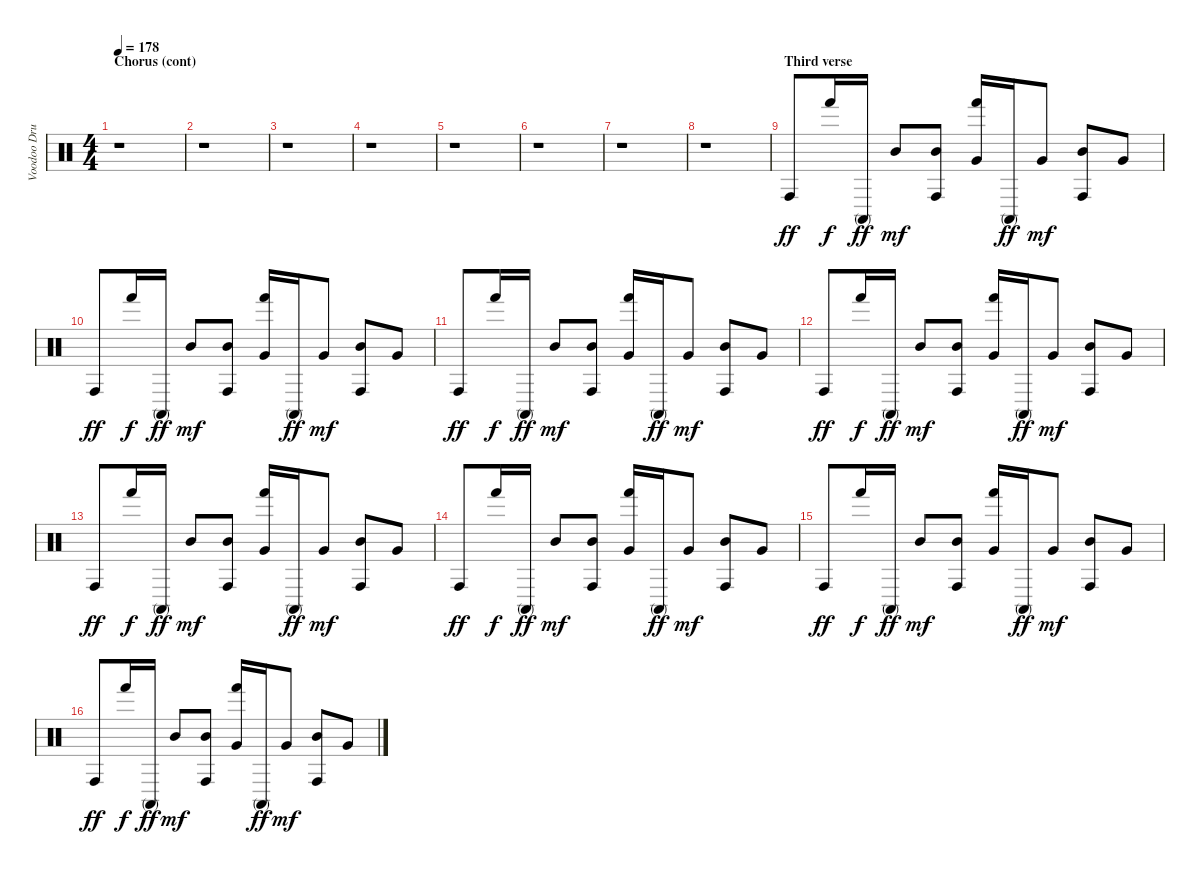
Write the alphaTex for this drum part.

\track ("Voodoo Drums" "Voodoo Dru") {instrument percussion}
\staff {score}
\articulation defaults
\ts (4 4)
\section ("" "Chorus (cont)")
\tempo 178
\clef neutral
\ks c
r.1{dy mf} |
r.1 |
r.1 |
r.1 |
r.1 |
r.1 |
r.1 |
r.1 |
\section ("" "Third verse")
"Conga high (hit)".8{dy ff} "Hand (hit)".16{dy f} "Conga high (mute)".16{dy ff} "Mid Tom (hit)".8{dy mf} ("Conga high (hit)" "Mid Tom (hit)").8 ("Hand (hit)" "Very Low Tom (hit)").16 "Conga high (mute)".16{dy ff} "Very Low Tom (hit)".8{dy mf} ("Conga high (hit)" "Mid Tom (hit)").8 "Very Low Tom (hit)".8 |
"Conga high (hit)".8{dy ff} "Hand (hit)".16{dy f} "Conga high (mute)".16{dy ff} "Mid Tom (hit)".8{dy mf} ("Conga high (hit)" "Mid Tom (hit)").8 ("Hand (hit)" "Very Low Tom (hit)").16 "Conga high (mute)".16{dy ff} "Very Low Tom (hit)".8{dy mf} ("Conga high (hit)" "Mid Tom (hit)").8 "Very Low Tom (hit)".8 |
"Conga high (hit)".8{dy ff} "Hand (hit)".16{dy f} "Conga high (mute)".16{dy ff} "Mid Tom (hit)".8{dy mf} ("Conga high (hit)" "Mid Tom (hit)").8 ("Hand (hit)" "Very Low Tom (hit)").16 "Conga high (mute)".16{dy ff} "Very Low Tom (hit)".8{dy mf} ("Conga high (hit)" "Mid Tom (hit)").8 "Very Low Tom (hit)".8 |
"Conga high (hit)".8{dy ff} "Hand (hit)".16{dy f} "Conga high (mute)".16{dy ff} "Mid Tom (hit)".8{dy mf} ("Conga high (hit)" "Mid Tom (hit)").8 ("Hand (hit)" "Very Low Tom (hit)").16 "Conga high (mute)".16{dy ff} "Very Low Tom (hit)".8{dy mf} ("Conga high (hit)" "Mid Tom (hit)").8 "Very Low Tom (hit)".8 |
"Conga high (hit)".8{dy ff} "Hand (hit)".16{dy f} "Conga high (mute)".16{dy ff} "Mid Tom (hit)".8{dy mf} ("Conga high (hit)" "Mid Tom (hit)").8 ("Hand (hit)" "Very Low Tom (hit)").16 "Conga high (mute)".16{dy ff} "Very Low Tom (hit)".8{dy mf} ("Conga high (hit)" "Mid Tom (hit)").8 "Very Low Tom (hit)".8 |
"Conga high (hit)".8{dy ff} "Hand (hit)".16{dy f} "Conga high (mute)".16{dy ff} "Mid Tom (hit)".8{dy mf} ("Conga high (hit)" "Mid Tom (hit)").8 ("Hand (hit)" "Very Low Tom (hit)").16 "Conga high (mute)".16{dy ff} "Very Low Tom (hit)".8{dy mf} ("Conga high (hit)" "Mid Tom (hit)").8 "Very Low Tom (hit)".8 |
"Conga high (hit)".8{dy ff} "Hand (hit)".16{dy f} "Conga high (mute)".16{dy ff} "Mid Tom (hit)".8{dy mf} ("Conga high (hit)" "Mid Tom (hit)").8 ("Hand (hit)" "Very Low Tom (hit)").16 "Conga high (mute)".16{dy ff} "Very Low Tom (hit)".8{dy mf} ("Conga high (hit)" "Mid Tom (hit)").8 "Very Low Tom (hit)".8 |
"Conga high (hit)".8{dy ff} "Hand (hit)".16{dy f} "Conga high (mute)".16{dy ff} "Mid Tom (hit)".8{dy mf} ("Conga high (hit)" "Mid Tom (hit)").8 ("Hand (hit)" "Very Low Tom (hit)").16 "Conga high (mute)".16{dy ff} "Very Low Tom (hit)".8{dy mf} ("Conga high (hit)" "Mid Tom (hit)").8 "Very Low Tom (hit)".8
